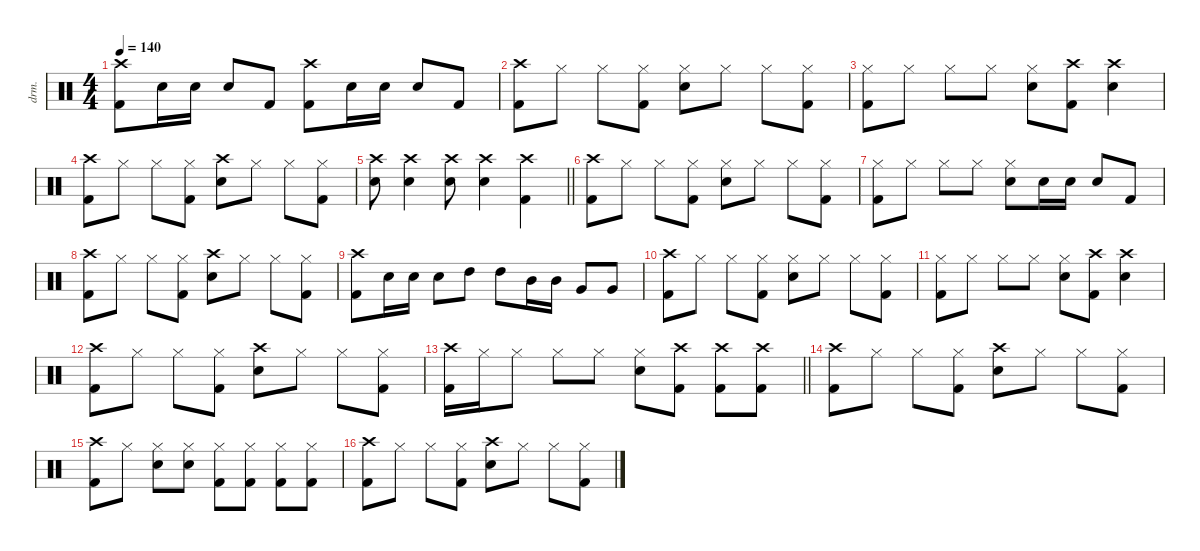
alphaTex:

\defaultSystemsLayout 4
\hideDynamics
\bracketExtendMode nobrackets
\otherSystemsTrackNameOrientation horizontal
\track ("Drums" "drm.") {defaultSystemsLayout 4 instrument percussion}
\staff {score}
\articulation defaults
\ts (4 4)
\tempo 140
\clef neutral
\ks aminor
("Crash high (hit)" "Kick (hit) 2").8{dy f beam Down} "Snare (hit) 2".16{beam Down} "Snare (hit) 2".16{beam Down} "Snare (hit) 2".8{beam Up} "Kick (hit) 2".8{beam Up} ("Crash high (hit)" "Kick (hit) 2").8{beam Down} "Snare (hit) 2".16{beam Down} "Snare (hit) 2".16{beam Down} "Snare (hit) 2".8{beam Up} "Kick (hit) 2".8{beam Up} |
("Crash high (hit)" "Kick (hit) 2").8{beam Down} "Hi-Hat (closed)".8{beam Down} "Hi-Hat (closed)".8{beam Down} ("Hi-Hat (closed)" "Kick (hit) 2").8{beam Down} ("Hi-Hat (closed)" "Snare (hit) 2").8{beam Down} "Hi-Hat (closed)".8{beam Down} "Hi-Hat (closed)".8{beam Down} ("Hi-Hat (closed)" "Kick (hit) 2").8{beam Down} |
("Hi-Hat (closed)" "Kick (hit) 2").8{beam Down} "Hi-Hat (closed)".8{beam Down} "Hi-Hat (closed)".8{beam Down} "Hi-Hat (closed)".8{beam Down} ("Hi-Hat (closed)" "Snare (hit) 2").8{beam Down} ("Crash high (hit)" "Kick (hit) 2").8{beam Down} ("Crash high (hit)" "Snare (hit) 2").4{beam Down} |
("Crash high (hit)" "Kick (hit) 2").8{beam Down} "Hi-Hat (closed)".8{beam Down} "Hi-Hat (closed)".8{beam Down} ("Hi-Hat (closed)" "Kick (hit) 2").8{beam Down} ("Crash high (hit)" "Snare (hit) 2").8{beam Down} "Hi-Hat (closed)".8{beam Down} "Hi-Hat (closed)".8{beam Down} ("Hi-Hat (closed)" "Kick (hit) 2").8{beam Down} |
\barLineRight lightlight
("Crash high (hit)" "Snare (hit) 2").8{beam Down} ("Crash high (hit)" "Snare (hit) 2").4{beam Down} ("Crash high (hit)" "Snare (hit) 2").8{beam Down} ("Crash high (hit)" "Snare (hit) 2").4{beam Down} ("Crash high (hit)" "Kick (hit) 2").4{beam Down} |
("Crash high (hit)" "Kick (hit) 2").8{beam Down} "Hi-Hat (closed)".8{beam Down} "Hi-Hat (closed)".8{beam Down} ("Hi-Hat (closed)" "Kick (hit) 2").8{beam Down} ("Hi-Hat (closed)" "Snare (hit) 2").8{beam Down} "Hi-Hat (closed)".8{beam Down} "Hi-Hat (closed)".8{beam Down} ("Hi-Hat (closed)" "Kick (hit) 2").8{beam Down} |
("Hi-Hat (closed)" "Kick (hit) 2").8{beam Down} "Hi-Hat (closed)".8{beam Down} "Hi-Hat (closed)".8{beam Down} "Hi-Hat (closed)".8{beam Down} ("Hi-Hat (closed)" "Snare (hit) 2").8{beam Down} "Snare (hit) 2".16{beam Down} "Snare (hit) 2".16{beam Down} "Snare (hit) 2".8{beam Up} "Kick (hit) 2".8{beam Up} |
("Crash high (hit)" "Kick (hit) 2").8{beam Down} "Hi-Hat (closed)".8{beam Down} "Hi-Hat (closed)".8{beam Down} ("Hi-Hat (closed)" "Kick (hit) 2").8{beam Down} ("Crash high (hit)" "Snare (hit) 2").8{beam Down} "Hi-Hat (closed)".8{beam Down} "Hi-Hat (closed)".8{beam Down} ("Hi-Hat (closed)" "Kick (hit) 2").8{beam Down} |
("Crash high (hit)" "Kick (hit) 2").8{beam Down} "Snare (hit) 2".16{beam Down} "Snare (hit) 2".16{beam Down} "Snare (hit) 2".8{beam Down} "High Tom (hit)".8{beam Down} "High Tom (hit)".8{beam Down} "Mid Tom (hit)".16{beam Down} "Mid Tom (hit)".16{beam Down} "Very Low Tom (hit)".8{beam Up} "Very Low Tom (hit)".8{beam Up} |
("Crash high (hit)" "Kick (hit) 2").8{beam Down} "Hi-Hat (closed)".8{beam Down} "Hi-Hat (closed)".8{beam Down} ("Hi-Hat (closed)" "Kick (hit) 2").8{beam Down} ("Hi-Hat (closed)" "Snare (hit) 2").8{beam Down} "Hi-Hat (closed)".8{beam Down} "Hi-Hat (closed)".8{beam Down} ("Hi-Hat (closed)" "Kick (hit) 2").8{beam Down} |
("Hi-Hat (closed)" "Kick (hit) 2").8{beam Down} "Hi-Hat (closed)".8{beam Down} "Hi-Hat (closed)".8{beam Down} "Hi-Hat (closed)".8{beam Down} ("Hi-Hat (closed)" "Snare (hit) 2").8{beam Down} ("Crash high (hit)" "Kick (hit) 2").8{beam Down} ("Crash high (hit)" "Snare (hit) 2").4{beam Down} |
("Crash high (hit)" "Kick (hit) 2").8{beam Down} "Hi-Hat (closed)".8{beam Down} "Hi-Hat (closed)".8{beam Down} ("Hi-Hat (closed)" "Kick (hit) 2").8{beam Down} ("Crash high (hit)" "Snare (hit) 2").8{beam Down} "Hi-Hat (closed)".8{beam Down} "Hi-Hat (closed)".8{beam Down} ("Hi-Hat (closed)" "Kick (hit) 2").8{beam Down} |
\barLineRight lightlight
("Crash high (hit)" "Kick (hit) 2").16{beam Down} "Hi-Hat (closed)".16{beam Down} "Hi-Hat (closed)".8{beam Down} "Hi-Hat (closed)".8{beam Down} "Hi-Hat (closed)".8{beam Down} ("Hi-Hat (closed)" "Snare (hit) 2").8{beam Down} ("Crash high (hit)" "Kick (hit) 2").8{beam Down} ("Crash high (hit)" "Kick (hit) 2").8{beam Down} ("Crash high (hit)" "Kick (hit) 2").8{beam Down} |
("Crash high (hit)" "Kick (hit) 2").8{beam Down} "Hi-Hat (closed)".8{beam Down} "Hi-Hat (closed)".8{beam Down} ("Hi-Hat (closed)" "Kick (hit) 2").8{beam Down} ("Crash high (hit)" "Snare (hit) 2").8{beam Down} "Hi-Hat (closed)".8{beam Down} "Hi-Hat (closed)".8{beam Down} ("Hi-Hat (closed)" "Kick (hit) 2").8{beam Down} |
("Crash high (hit)" "Kick (hit) 2").8{beam Down} "Hi-Hat (closed)".8{beam Down} ("Hi-Hat (closed)" "Snare (hit) 2").8{beam Down} ("Hi-Hat (closed)" "Snare (hit) 2").8{beam Down} ("Hi-Hat (closed)" "Kick (hit) 2").8{beam Down} ("Hi-Hat (closed)" "Kick (hit) 2").8{beam Down} ("Hi-Hat (closed)" "Kick (hit) 2").8{beam Down} ("Hi-Hat (closed)" "Kick (hit) 2").8{beam Down} |
("Crash high (hit)" "Kick (hit) 2").8{beam Down} "Hi-Hat (closed)".8{beam Down} "Hi-Hat (closed)".8{beam Down} ("Hi-Hat (closed)" "Kick (hit) 2").8{beam Down} ("Crash high (hit)" "Snare (hit) 2").8{beam Down} "Hi-Hat (closed)".8{beam Down} "Hi-Hat (closed)".8{beam Down} ("Hi-Hat (closed)" "Kick (hit) 2").8{beam Down}
